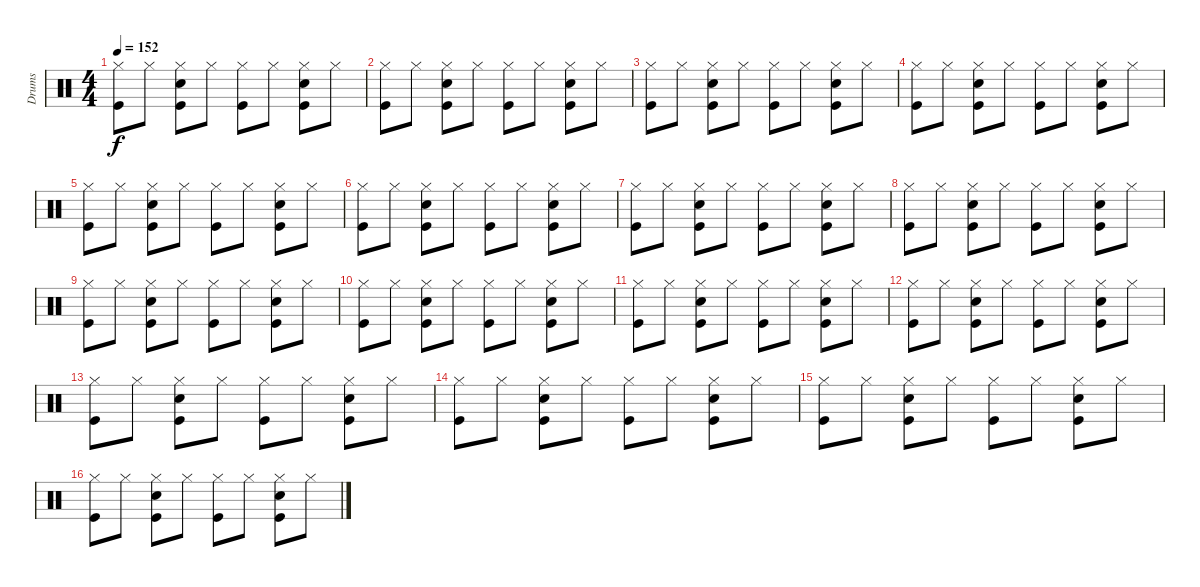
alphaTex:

\track ("Drums" "Drums") {instrument percussion}
\staff {score}
\articulation defaults
\ts (4 4)
\tempo 152
\clef neutral
\ks c
("Hi-Hat (closed)" "Kick (hit)").8{dy f} "Hi-Hat (closed)".8 ("Hi-Hat (closed)" "Electric Snare (hit)" "Kick (hit)").8 "Hi-Hat (closed)".8 ("Hi-Hat (closed)" "Kick (hit)").8 "Hi-Hat (closed)".8 ("Hi-Hat (closed)" "Electric Snare (hit)" "Kick (hit)").8 "Hi-Hat (closed)".8 |
("Hi-Hat (closed)" "Kick (hit)").8 "Hi-Hat (closed)".8 ("Hi-Hat (closed)" "Electric Snare (hit)" "Kick (hit)").8 "Hi-Hat (closed)".8 ("Hi-Hat (closed)" "Kick (hit)").8 "Hi-Hat (closed)".8 ("Hi-Hat (closed)" "Electric Snare (hit)" "Kick (hit)").8 "Hi-Hat (closed)".8 |
("Hi-Hat (closed)" "Kick (hit)").8 "Hi-Hat (closed)".8 ("Hi-Hat (closed)" "Electric Snare (hit)" "Kick (hit)").8 "Hi-Hat (closed)".8 ("Hi-Hat (closed)" "Kick (hit)").8 "Hi-Hat (closed)".8 ("Hi-Hat (closed)" "Electric Snare (hit)" "Kick (hit)").8 "Hi-Hat (closed)".8 |
("Hi-Hat (closed)" "Kick (hit)").8 "Hi-Hat (closed)".8 ("Hi-Hat (closed)" "Electric Snare (hit)" "Kick (hit)").8 "Hi-Hat (closed)".8 ("Hi-Hat (closed)" "Kick (hit)").8 "Hi-Hat (closed)".8 ("Hi-Hat (closed)" "Electric Snare (hit)" "Kick (hit)").8 "Hi-Hat (closed)".8 |
("Hi-Hat (closed)" "Kick (hit)").8 "Hi-Hat (closed)".8 ("Hi-Hat (closed)" "Electric Snare (hit)" "Kick (hit)").8 "Hi-Hat (closed)".8 ("Hi-Hat (closed)" "Kick (hit)").8 "Hi-Hat (closed)".8 ("Hi-Hat (closed)" "Electric Snare (hit)" "Kick (hit)").8 "Hi-Hat (closed)".8 |
("Hi-Hat (closed)" "Kick (hit)").8 "Hi-Hat (closed)".8 ("Hi-Hat (closed)" "Electric Snare (hit)" "Kick (hit)").8 "Hi-Hat (closed)".8 ("Hi-Hat (closed)" "Kick (hit)").8 "Hi-Hat (closed)".8 ("Hi-Hat (closed)" "Electric Snare (hit)" "Kick (hit)").8 "Hi-Hat (closed)".8 |
("Hi-Hat (closed)" "Kick (hit)").8 "Hi-Hat (closed)".8 ("Hi-Hat (closed)" "Electric Snare (hit)" "Kick (hit)").8 "Hi-Hat (closed)".8 ("Hi-Hat (closed)" "Kick (hit)").8 "Hi-Hat (closed)".8 ("Hi-Hat (closed)" "Electric Snare (hit)" "Kick (hit)").8 "Hi-Hat (closed)".8 |
("Hi-Hat (closed)" "Kick (hit)").8 "Hi-Hat (closed)".8 ("Hi-Hat (closed)" "Electric Snare (hit)" "Kick (hit)").8 "Hi-Hat (closed)".8 ("Hi-Hat (closed)" "Kick (hit)").8 "Hi-Hat (closed)".8 ("Hi-Hat (closed)" "Electric Snare (hit)" "Kick (hit)").8 "Hi-Hat (closed)".8 |
("Hi-Hat (closed)" "Kick (hit)").8 "Hi-Hat (closed)".8 ("Hi-Hat (closed)" "Electric Snare (hit)" "Kick (hit)").8 "Hi-Hat (closed)".8 ("Hi-Hat (closed)" "Kick (hit)").8 "Hi-Hat (closed)".8 ("Hi-Hat (closed)" "Electric Snare (hit)" "Kick (hit)").8 "Hi-Hat (closed)".8 |
("Hi-Hat (closed)" "Kick (hit)").8 "Hi-Hat (closed)".8 ("Hi-Hat (closed)" "Electric Snare (hit)" "Kick (hit)").8 "Hi-Hat (closed)".8 ("Hi-Hat (closed)" "Kick (hit)").8 "Hi-Hat (closed)".8 ("Hi-Hat (closed)" "Electric Snare (hit)" "Kick (hit)").8 "Hi-Hat (closed)".8 |
("Hi-Hat (closed)" "Kick (hit)").8 "Hi-Hat (closed)".8 ("Hi-Hat (closed)" "Electric Snare (hit)" "Kick (hit)").8 "Hi-Hat (closed)".8 ("Hi-Hat (closed)" "Kick (hit)").8 "Hi-Hat (closed)".8 ("Hi-Hat (closed)" "Electric Snare (hit)" "Kick (hit)").8 "Hi-Hat (closed)".8 |
("Hi-Hat (closed)" "Kick (hit)").8 "Hi-Hat (closed)".8 ("Hi-Hat (closed)" "Electric Snare (hit)" "Kick (hit)").8 "Hi-Hat (closed)".8 ("Hi-Hat (closed)" "Kick (hit)").8 "Hi-Hat (closed)".8 ("Hi-Hat (closed)" "Electric Snare (hit)" "Kick (hit)").8 "Hi-Hat (closed)".8 |
("Hi-Hat (closed)" "Kick (hit)").8 "Hi-Hat (closed)".8 ("Hi-Hat (closed)" "Electric Snare (hit)" "Kick (hit)").8 "Hi-Hat (closed)".8 ("Hi-Hat (closed)" "Kick (hit)").8 "Hi-Hat (closed)".8 ("Hi-Hat (closed)" "Electric Snare (hit)" "Kick (hit)").8 "Hi-Hat (closed)".8 |
("Hi-Hat (closed)" "Kick (hit)").8 "Hi-Hat (closed)".8 ("Hi-Hat (closed)" "Electric Snare (hit)" "Kick (hit)").8 "Hi-Hat (closed)".8 ("Hi-Hat (closed)" "Kick (hit)").8 "Hi-Hat (closed)".8 ("Hi-Hat (closed)" "Electric Snare (hit)" "Kick (hit)").8 "Hi-Hat (closed)".8 |
("Hi-Hat (closed)" "Kick (hit)").8 "Hi-Hat (closed)".8 ("Hi-Hat (closed)" "Electric Snare (hit)" "Kick (hit)").8 "Hi-Hat (closed)".8 ("Hi-Hat (closed)" "Kick (hit)").8 "Hi-Hat (closed)".8 ("Hi-Hat (closed)" "Electric Snare (hit)" "Kick (hit)").8 "Hi-Hat (closed)".8 |
("Hi-Hat (closed)" "Kick (hit)").8 "Hi-Hat (closed)".8 ("Hi-Hat (closed)" "Electric Snare (hit)" "Kick (hit)").8 "Hi-Hat (closed)".8 ("Hi-Hat (closed)" "Kick (hit)").8 "Hi-Hat (closed)".8 ("Hi-Hat (closed)" "Electric Snare (hit)" "Kick (hit)").8 "Hi-Hat (closed)".8
